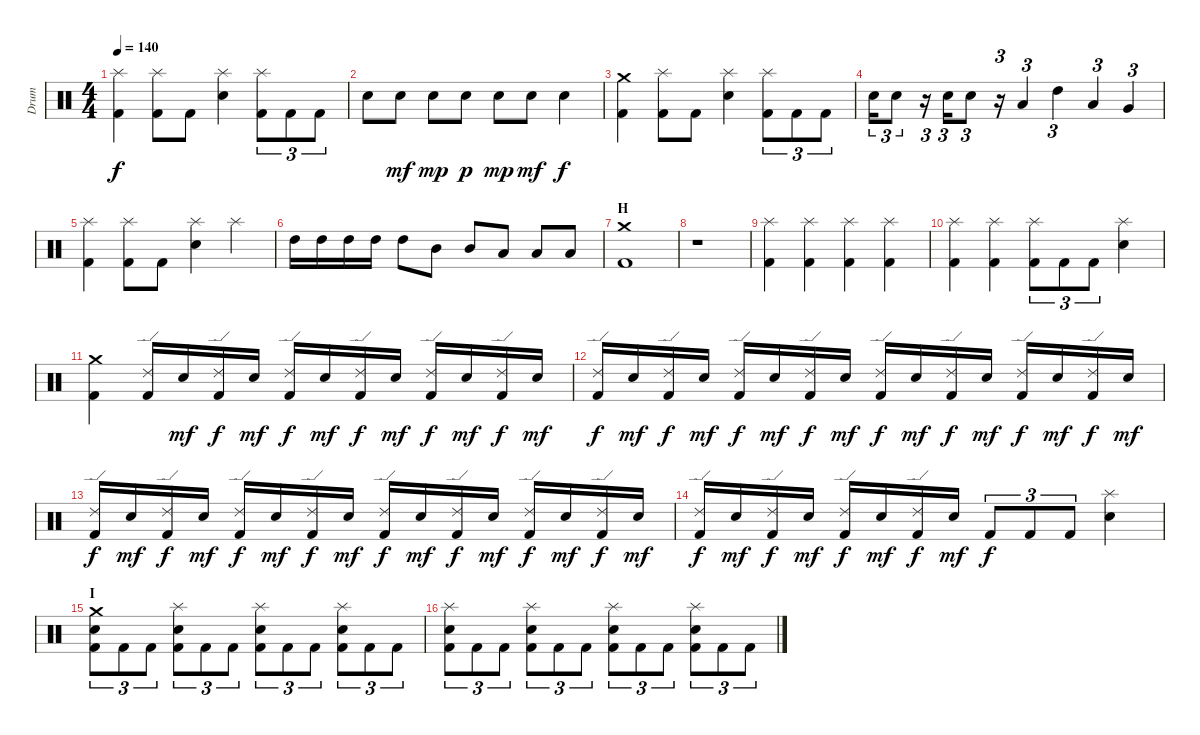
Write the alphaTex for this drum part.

\track ("Drum" "Drum") {instrument percussion}
\staff {score}
\articulation defaults
\ts (4 4)
\tempo 140
\clef neutral
\ks c
("Splash (hit)" "Kick (hit) 2").4{dy f} ("Splash (hit)" "Kick (hit) 2").8 "Kick (hit) 2".8 ("Splash (hit)" "Electric Snare (hit)").4 ("Splash (hit)" "Kick (hit) 2").8{tu (3 2)} "Kick (hit) 2".8{tu (3 2)} "Kick (hit) 2".8{tu (3 2)} |
"Electric Snare (hit)".8 "Electric Snare (hit)".8{dy mf} "Electric Snare (hit)".8{dy mp} "Electric Snare (hit)".8{dy p} "Electric Snare (hit)".8{dy mp} "Electric Snare (hit)".8{dy mf} "Electric Snare (hit)".4{dy f} |
("Crash medium (hit)" "Kick (hit) 2").4 ("Splash (hit)" "Kick (hit) 2").8 "Kick (hit) 2".8 ("Splash (hit)" "Electric Snare (hit)").4 ("Splash (hit)" "Kick (hit) 2").8{tu (3 2)} "Kick (hit) 2".8{tu (3 2)} "Kick (hit) 2".8{tu (3 2)} |
"Electric Snare (hit)".16{tu (3 2)} "Electric Snare (hit)".8{tu (3 2)} r.16{tu (3 2)} "Electric Snare (hit)".16{tu (3 2)} "Electric Snare (hit)".8{tu (3 2)} r.16{tu (3 2)} "Low Tom (hit)".4{tu (3 2)} "High Tom (hit)".4{tu (3 2)} "Low Tom (hit)".4{tu (3 2)} "Very Low Tom (hit)".4{tu (3 2)} |
("Splash (hit)" "Kick (hit) 2").4 ("Splash (hit)" "Kick (hit) 2").8 "Kick (hit) 2".8 ("Splash (hit)" "Electric Snare (hit)").4 "Splash (hit)".4 |
"High Tom (hit)".16 "High Tom (hit)".16 "High Tom (hit)".16 "High Tom (hit)".16 "High Tom (hit)".8 "Mid Tom (hit)".8 "Mid Tom (hit)".8 "Low Tom (hit)".8 "Low Tom (hit)".8 "Low Tom (hit)".8 |
\section ("" "H")
("Crash medium (hit)" "Kick (hit) 2").1 |
r.1 |
("Splash (hit)" "Kick (hit) 2").4 ("Splash (hit)" "Kick (hit) 2").4 ("Splash (hit)" "Kick (hit) 2").4 ("Splash (hit)" "Kick (hit) 2").4 |
("Splash (hit)" "Kick (hit) 2").4 ("Splash (hit)" "Kick (hit) 2").4 ("Splash (hit)" "Kick (hit) 2").8{tu (3 2)} "Kick (hit) 2".8{tu (3 2)} "Kick (hit) 2".8{tu (3 2)} ("Splash (hit)" "Electric Snare (hit)").4 |
("Crash medium (hit)" "Kick (hit) 2").4 ("Ride (edge) 2" "Kick (hit) 2").16 "Electric Snare (hit)".16{dy mf} ("Ride (edge) 2" "Kick (hit) 2").16{dy f} "Electric Snare (hit)".16{dy mf} ("Ride (edge) 2" "Kick (hit) 2").16{dy f} "Electric Snare (hit)".16{dy mf} ("Ride (edge) 2" "Kick (hit) 2").16{dy f} "Electric Snare (hit)".16{dy mf} ("Ride (edge) 2" "Kick (hit) 2").16{dy f} "Electric Snare (hit)".16{dy mf} ("Ride (edge) 2" "Kick (hit) 2").16{dy f} "Electric Snare (hit)".16{dy mf} |
("Ride (edge) 2" "Kick (hit) 2").16{dy f} "Electric Snare (hit)".16{dy mf} ("Ride (edge) 2" "Kick (hit) 2").16{dy f} "Electric Snare (hit)".16{dy mf} ("Ride (edge) 2" "Kick (hit) 2").16{dy f} "Electric Snare (hit)".16{dy mf} ("Ride (edge) 2" "Kick (hit) 2").16{dy f} "Electric Snare (hit)".16{dy mf} ("Ride (edge) 2" "Kick (hit) 2").16{dy f} "Electric Snare (hit)".16{dy mf} ("Ride (edge) 2" "Kick (hit) 2").16{dy f} "Electric Snare (hit)".16{dy mf} ("Ride (edge) 2" "Kick (hit) 2").16{dy f} "Electric Snare (hit)".16{dy mf} ("Ride (edge) 2" "Kick (hit) 2").16{dy f} "Electric Snare (hit)".16{dy mf} |
("Ride (edge) 2" "Kick (hit) 2").16{dy f} "Electric Snare (hit)".16{dy mf} ("Ride (edge) 2" "Kick (hit) 2").16{dy f} "Electric Snare (hit)".16{dy mf} ("Ride (edge) 2" "Kick (hit) 2").16{dy f} "Electric Snare (hit)".16{dy mf} ("Ride (edge) 2" "Kick (hit) 2").16{dy f} "Electric Snare (hit)".16{dy mf} ("Ride (edge) 2" "Kick (hit) 2").16{dy f} "Electric Snare (hit)".16{dy mf} ("Ride (edge) 2" "Kick (hit) 2").16{dy f} "Electric Snare (hit)".16{dy mf} ("Ride (edge) 2" "Kick (hit) 2").16{dy f} "Electric Snare (hit)".16{dy mf} ("Ride (edge) 2" "Kick (hit) 2").16{dy f} "Electric Snare (hit)".16{dy mf} |
("Ride (edge) 2" "Kick (hit) 2").16{dy f} "Electric Snare (hit)".16{dy mf} ("Ride (edge) 2" "Kick (hit) 2").16{dy f} "Electric Snare (hit)".16{dy mf} ("Ride (edge) 2" "Kick (hit) 2").16{dy f} "Electric Snare (hit)".16{dy mf} ("Ride (edge) 2" "Kick (hit) 2").16{dy f} "Electric Snare (hit)".16{dy mf} "Kick (hit) 2".8{tu (3 2) dy f} "Kick (hit) 2".8{tu (3 2)} "Kick (hit) 2".8{tu (3 2)} ("Splash (hit)" "Electric Snare (hit)").4 |
\section ("" "I")
("Crash medium (hit)" "Electric Snare (hit)" "Kick (hit) 2").8{tu (3 2)} "Kick (hit) 2".8{tu (3 2)} "Kick (hit) 2".8{tu (3 2)} ("Splash (hit)" "Electric Snare (hit)" "Kick (hit) 2").8{tu (3 2)} "Kick (hit) 2".8{tu (3 2)} "Kick (hit) 2".8{tu (3 2)} ("Splash (hit)" "Electric Snare (hit)" "Kick (hit) 2").8{tu (3 2)} "Kick (hit) 2".8{tu (3 2)} "Kick (hit) 2".8{tu (3 2)} ("Splash (hit)" "Electric Snare (hit)" "Kick (hit) 2").8{tu (3 2)} "Kick (hit) 2".8{tu (3 2)} "Kick (hit) 2".8{tu (3 2)} |
("Splash (hit)" "Electric Snare (hit)" "Kick (hit) 2").8{tu (3 2)} "Kick (hit) 2".8{tu (3 2)} "Kick (hit) 2".8{tu (3 2)} ("Splash (hit)" "Electric Snare (hit)" "Kick (hit) 2").8{tu (3 2)} "Kick (hit) 2".8{tu (3 2)} "Kick (hit) 2".8{tu (3 2)} ("Splash (hit)" "Electric Snare (hit)" "Kick (hit) 2").8{tu (3 2)} "Kick (hit) 2".8{tu (3 2)} "Kick (hit) 2".8{tu (3 2)} ("Splash (hit)" "Electric Snare (hit)" "Kick (hit) 2").8{tu (3 2)} "Kick (hit) 2".8{tu (3 2)} "Kick (hit) 2".8{tu (3 2)}
